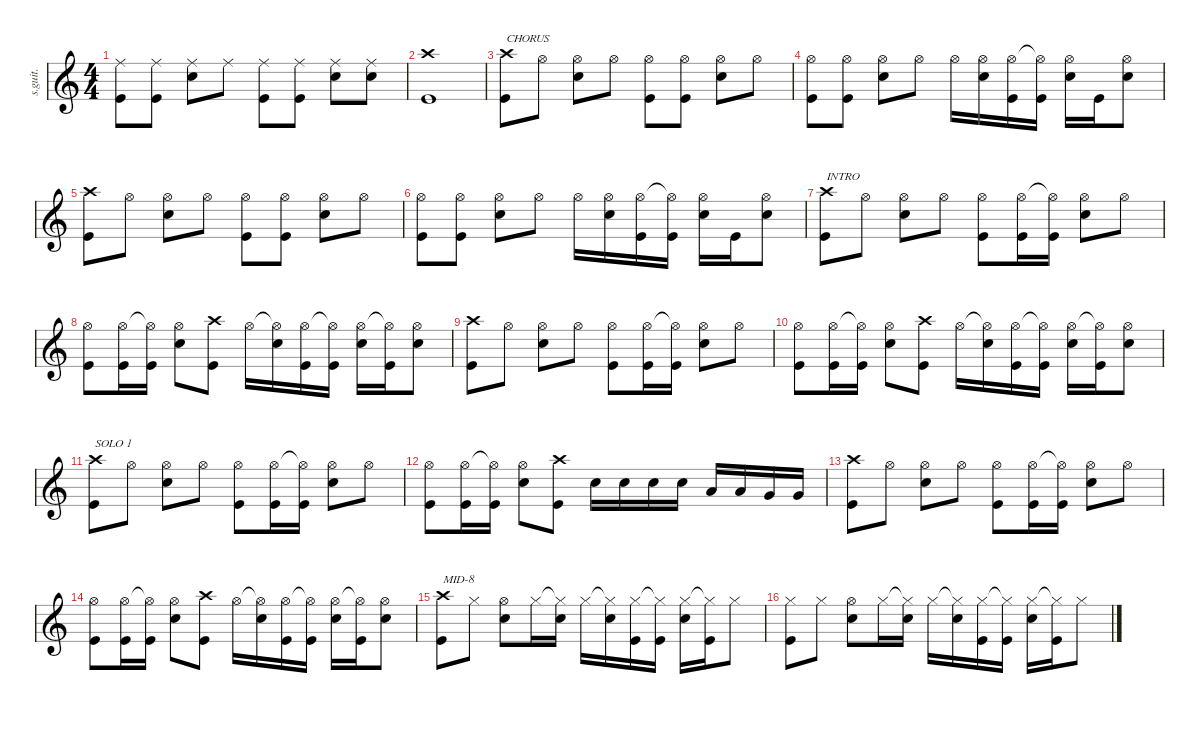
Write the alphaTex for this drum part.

\defaultSystemsLayout 4
\hideDynamics
\bracketExtendMode nobrackets
\track ("Phil Selway" "s.guit.") {instrument percussion}
\staff {score}
\articulation defaults
\ts (4 4)
\tempo (88 hide)
\clef g2
\ks c
("Ride (middle)" "Kick (hit)").8{lyrics (0 "") lyrics (1 "") lyrics (2 "") lyrics (3 "") lyrics (4 "") dy f} ("Ride (middle)" "Kick (hit)").8{lyrics (0 "") lyrics (1 "") lyrics (2 "") lyrics (3 "") lyrics (4 "")} ("Ride (middle)" "Snare (hit) 2").8{lyrics (0 "") lyrics (1 "") lyrics (2 "") lyrics (3 "") lyrics (4 "")} "Ride (middle)".8{lyrics (0 "") lyrics (1 "") lyrics (2 "") lyrics (3 "") lyrics (4 "")} ("Ride (middle)" "Kick (hit)").8{lyrics (0 "") lyrics (1 "") lyrics (2 "") lyrics (3 "") lyrics (4 "")} ("Ride (middle)" "Kick (hit)").8{lyrics (0 "") lyrics (1 "") lyrics (2 "") lyrics (3 "") lyrics (4 "")} ("Ride (middle)" "Snare (hit) 2").8{lyrics (0 "") lyrics (1 "") lyrics (2 "") lyrics (3 "") lyrics (4 "")} ("Ride (middle)" "Snare (hit) 2").8{lyrics (0 "") lyrics (1 "") lyrics (2 "") lyrics (3 "") lyrics (4 "")} |
("Crash high (hit)" "Kick (hit)").1{lyrics (0 "") lyrics (1 "") lyrics (2 "") lyrics (3 "") lyrics (4 "")} |
("Crash high (hit)" "Kick (hit)").8{txt "CHORUS" lyrics (0 "") lyrics (1 "") lyrics (2 "") lyrics (3 "") lyrics (4 "")} "Hi-Hat (open)".8{lyrics (0 "") lyrics (1 "") lyrics (2 "") lyrics (3 "") lyrics (4 "")} ("Hi-Hat (open)" "Snare (hit) 2").8{lyrics (0 "") lyrics (1 "") lyrics (2 "") lyrics (3 "") lyrics (4 "")} "Hi-Hat (open)".8{lyrics (0 "") lyrics (1 "") lyrics (2 "") lyrics (3 "") lyrics (4 "")} ("Hi-Hat (open)" "Kick (hit)").8{lyrics (0 "") lyrics (1 "") lyrics (2 "") lyrics (3 "") lyrics (4 "")} ("Hi-Hat (open)" "Kick (hit)").8{lyrics (0 "") lyrics (1 "") lyrics (2 "") lyrics (3 "") lyrics (4 "")} ("Hi-Hat (open)" "Snare (hit) 2").8{lyrics (0 "") lyrics (1 "") lyrics (2 "") lyrics (3 "") lyrics (4 "")} "Hi-Hat (open)".8{lyrics (0 "") lyrics (1 "") lyrics (2 "") lyrics (3 "") lyrics (4 "")} |
("Hi-Hat (open)" "Kick (hit)").8{lyrics (0 "") lyrics (1 "") lyrics (2 "") lyrics (3 "") lyrics (4 "")} ("Hi-Hat (open)" "Kick (hit)").8{lyrics (0 "") lyrics (1 "") lyrics (2 "") lyrics (3 "") lyrics (4 "")} ("Hi-Hat (open)" "Snare (hit) 2").8{lyrics (0 "") lyrics (1 "") lyrics (2 "") lyrics (3 "") lyrics (4 "")} "Hi-Hat (open)".8{lyrics (0 "") lyrics (1 "") lyrics (2 "") lyrics (3 "") lyrics (4 "")} "Hi-Hat (open)".16{lyrics (0 "") lyrics (1 "") lyrics (2 "") lyrics (3 "") lyrics (4 "")} ("Hi-Hat (open)" "Snare (hit) 2").16{lyrics (0 "") lyrics (1 "") lyrics (2 "") lyrics (3 "") lyrics (4 "")} ("Hi-Hat (open)" "Kick (hit)").16{lyrics (0 "") lyrics (1 "") lyrics (2 "") lyrics (3 "") lyrics (4 "")} ("Hi-Hat (open)"{t} "Kick (hit)").16{lyrics (0 "") lyrics (1 "") lyrics (2 "") lyrics (3 "") lyrics (4 "")} ("Hi-Hat (open)" "Snare (hit) 2").16{lyrics (0 "") lyrics (1 "") lyrics (2 "") lyrics (3 "") lyrics (4 "")} "Kick (hit)".16{lyrics (0 "") lyrics (1 "") lyrics (2 "") lyrics (3 "") lyrics (4 "") dy fff} ("Hi-Hat (open)" "Snare (hit) 2").8{lyrics (0 "") lyrics (1 "") lyrics (2 "") lyrics (3 "") lyrics (4 "") dy f} |
("Crash high (hit)" "Kick (hit)").8{lyrics (0 "") lyrics (1 "") lyrics (2 "") lyrics (3 "") lyrics (4 "")} "Hi-Hat (open)".8{lyrics (0 "") lyrics (1 "") lyrics (2 "") lyrics (3 "") lyrics (4 "")} ("Hi-Hat (open)" "Snare (hit) 2").8{lyrics (0 "") lyrics (1 "") lyrics (2 "") lyrics (3 "") lyrics (4 "")} "Hi-Hat (open)".8{lyrics (0 "") lyrics (1 "") lyrics (2 "") lyrics (3 "") lyrics (4 "")} ("Hi-Hat (open)" "Kick (hit)").8{lyrics (0 "") lyrics (1 "") lyrics (2 "") lyrics (3 "") lyrics (4 "")} ("Hi-Hat (open)" "Kick (hit)").8{lyrics (0 "") lyrics (1 "") lyrics (2 "") lyrics (3 "") lyrics (4 "")} ("Hi-Hat (open)" "Snare (hit) 2").8{lyrics (0 "") lyrics (1 "") lyrics (2 "") lyrics (3 "") lyrics (4 "")} "Hi-Hat (open)".8{lyrics (0 "") lyrics (1 "") lyrics (2 "") lyrics (3 "") lyrics (4 "")} |
("Hi-Hat (open)" "Kick (hit)").8{lyrics (0 "") lyrics (1 "") lyrics (2 "") lyrics (3 "") lyrics (4 "")} ("Hi-Hat (open)" "Kick (hit)").8{lyrics (0 "") lyrics (1 "") lyrics (2 "") lyrics (3 "") lyrics (4 "")} ("Hi-Hat (open)" "Snare (hit) 2").8{lyrics (0 "") lyrics (1 "") lyrics (2 "") lyrics (3 "") lyrics (4 "")} "Hi-Hat (open)".8{lyrics (0 "") lyrics (1 "") lyrics (2 "") lyrics (3 "") lyrics (4 "")} "Hi-Hat (open)".16{lyrics (0 "") lyrics (1 "") lyrics (2 "") lyrics (3 "") lyrics (4 "")} ("Hi-Hat (open)" "Snare (hit) 2").16{lyrics (0 "") lyrics (1 "") lyrics (2 "") lyrics (3 "") lyrics (4 "")} ("Hi-Hat (open)" "Kick (hit)").16{lyrics (0 "") lyrics (1 "") lyrics (2 "") lyrics (3 "") lyrics (4 "")} ("Hi-Hat (open)"{t} "Kick (hit)").16{lyrics (0 "") lyrics (1 "") lyrics (2 "") lyrics (3 "") lyrics (4 "")} ("Hi-Hat (open)" "Snare (hit) 2").16{lyrics (0 "") lyrics (1 "") lyrics (2 "") lyrics (3 "") lyrics (4 "")} "Kick (hit)".16{lyrics (0 "") lyrics (1 "") lyrics (2 "") lyrics (3 "") lyrics (4 "") dy fff} ("Hi-Hat (open)" "Snare (hit) 2").8{lyrics (0 "") lyrics (1 "") lyrics (2 "") lyrics (3 "") lyrics (4 "") dy f} |
("Crash high (hit)" "Kick (hit)").8{txt "INTRO" lyrics (0 "") lyrics (1 "") lyrics (2 "") lyrics (3 "") lyrics (4 "")} "Hi-Hat (open)".8{lyrics (0 "") lyrics (1 "") lyrics (2 "") lyrics (3 "") lyrics (4 "")} ("Hi-Hat (open)" "Snare (hit) 2").8{lyrics (0 "") lyrics (1 "") lyrics (2 "") lyrics (3 "") lyrics (4 "")} "Hi-Hat (open)".8{lyrics (0 "") lyrics (1 "") lyrics (2 "") lyrics (3 "") lyrics (4 "")} ("Hi-Hat (open)" "Kick (hit)").8{lyrics (0 "") lyrics (1 "") lyrics (2 "") lyrics (3 "") lyrics (4 "")} ("Hi-Hat (open)" "Kick (hit)").16{lyrics (0 "") lyrics (1 "") lyrics (2 "") lyrics (3 "") lyrics (4 "")} ("Hi-Hat (open)"{t} "Kick (hit)").16{lyrics (0 "") lyrics (1 "") lyrics (2 "") lyrics (3 "") lyrics (4 "")} ("Hi-Hat (open)" "Snare (hit) 2").8{lyrics (0 "") lyrics (1 "") lyrics (2 "") lyrics (3 "") lyrics (4 "")} "Hi-Hat (open)".8{lyrics (0 "") lyrics (1 "") lyrics (2 "") lyrics (3 "") lyrics (4 "")} |
("Hi-Hat (open)" "Kick (hit)").8{lyrics (0 "") lyrics (1 "") lyrics (2 "") lyrics (3 "") lyrics (4 "")} ("Hi-Hat (open)" "Kick (hit)").16{lyrics (0 "") lyrics (1 "") lyrics (2 "") lyrics (3 "") lyrics (4 "")} ("Hi-Hat (open)"{t} "Kick (hit)").16{lyrics (0 "") lyrics (1 "") lyrics (2 "") lyrics (3 "") lyrics (4 "")} ("Hi-Hat (open)" "Snare (hit) 2").8{lyrics (0 "") lyrics (1 "") lyrics (2 "") lyrics (3 "") lyrics (4 "")} ("Crash high (hit)" "Kick (hit)").8{lyrics (0 "") lyrics (1 "") lyrics (2 "") lyrics (3 "") lyrics (4 "")} "Hi-Hat (open)".16{lyrics (0 "") lyrics (1 "") lyrics (2 "") lyrics (3 "") lyrics (4 "")} ("Hi-Hat (open)"{t} "Snare (hit) 2").16{lyrics (0 "") lyrics (1 "") lyrics (2 "") lyrics (3 "") lyrics (4 "")} ("Hi-Hat (open)" "Kick (hit)").16{lyrics (0 "") lyrics (1 "") lyrics (2 "") lyrics (3 "") lyrics (4 "")} ("Hi-Hat (open)"{t} "Kick (hit)").16{lyrics (0 "") lyrics (1 "") lyrics (2 "") lyrics (3 "") lyrics (4 "")} ("Hi-Hat (open)" "Snare (hit) 2").16{lyrics (0 "") lyrics (1 "") lyrics (2 "") lyrics (3 "") lyrics (4 "")} ("Hi-Hat (open)"{t} "Kick (hit)").16{lyrics (0 "") lyrics (1 "") lyrics (2 "") lyrics (3 "") lyrics (4 "")} ("Hi-Hat (open)" "Snare (hit) 2").8{lyrics (0 "") lyrics (1 "") lyrics (2 "") lyrics (3 "") lyrics (4 "")} |
("Crash high (hit)" "Kick (hit)").8{lyrics (0 "") lyrics (1 "") lyrics (2 "") lyrics (3 "") lyrics (4 "")} "Hi-Hat (open)".8{lyrics (0 "") lyrics (1 "") lyrics (2 "") lyrics (3 "") lyrics (4 "")} ("Hi-Hat (open)" "Snare (hit) 2").8{lyrics (0 "") lyrics (1 "") lyrics (2 "") lyrics (3 "") lyrics (4 "")} "Hi-Hat (open)".8{lyrics (0 "") lyrics (1 "") lyrics (2 "") lyrics (3 "") lyrics (4 "")} ("Hi-Hat (open)" "Kick (hit)").8{lyrics (0 "") lyrics (1 "") lyrics (2 "") lyrics (3 "") lyrics (4 "")} ("Hi-Hat (open)" "Kick (hit)").16{lyrics (0 "") lyrics (1 "") lyrics (2 "") lyrics (3 "") lyrics (4 "")} ("Hi-Hat (open)"{t} "Kick (hit)").16{lyrics (0 "") lyrics (1 "") lyrics (2 "") lyrics (3 "") lyrics (4 "")} ("Hi-Hat (open)" "Snare (hit) 2").8{lyrics (0 "") lyrics (1 "") lyrics (2 "") lyrics (3 "") lyrics (4 "")} "Hi-Hat (open)".8{lyrics (0 "") lyrics (1 "") lyrics (2 "") lyrics (3 "") lyrics (4 "")} |
("Hi-Hat (open)" "Kick (hit)").8{lyrics (0 "") lyrics (1 "") lyrics (2 "") lyrics (3 "") lyrics (4 "")} ("Hi-Hat (open)" "Kick (hit)").16{lyrics (0 "") lyrics (1 "") lyrics (2 "") lyrics (3 "") lyrics (4 "")} ("Hi-Hat (open)"{t} "Kick (hit)").16{lyrics (0 "") lyrics (1 "") lyrics (2 "") lyrics (3 "") lyrics (4 "")} ("Hi-Hat (open)" "Snare (hit) 2").8{lyrics (0 "") lyrics (1 "") lyrics (2 "") lyrics (3 "") lyrics (4 "")} ("Crash high (hit)" "Kick (hit)").8{lyrics (0 "") lyrics (1 "") lyrics (2 "") lyrics (3 "") lyrics (4 "")} "Hi-Hat (open)".16{lyrics (0 "") lyrics (1 "") lyrics (2 "") lyrics (3 "") lyrics (4 "")} ("Hi-Hat (open)"{t} "Snare (hit) 2").16{lyrics (0 "") lyrics (1 "") lyrics (2 "") lyrics (3 "") lyrics (4 "")} ("Hi-Hat (open)" "Kick (hit)").16{lyrics (0 "") lyrics (1 "") lyrics (2 "") lyrics (3 "") lyrics (4 "")} ("Hi-Hat (open)"{t} "Kick (hit)").16{lyrics (0 "") lyrics (1 "") lyrics (2 "") lyrics (3 "") lyrics (4 "")} ("Hi-Hat (open)" "Snare (hit) 2").16{lyrics (0 "") lyrics (1 "") lyrics (2 "") lyrics (3 "") lyrics (4 "")} ("Hi-Hat (open)"{t} "Kick (hit)").16{lyrics (0 "") lyrics (1 "") lyrics (2 "") lyrics (3 "") lyrics (4 "")} ("Hi-Hat (open)" "Snare (hit) 2").8{lyrics (0 "") lyrics (1 "") lyrics (2 "") lyrics (3 "") lyrics (4 "")} |
("Crash high (hit)" "Kick (hit)").8{txt "SOLO 1" lyrics (0 "") lyrics (1 "") lyrics (2 "") lyrics (3 "") lyrics (4 "")} "Hi-Hat (open)".8{lyrics (0 "") lyrics (1 "") lyrics (2 "") lyrics (3 "") lyrics (4 "")} ("Hi-Hat (open)" "Snare (hit) 2").8{lyrics (0 "") lyrics (1 "") lyrics (2 "") lyrics (3 "") lyrics (4 "")} "Hi-Hat (open)".8{lyrics (0 "") lyrics (1 "") lyrics (2 "") lyrics (3 "") lyrics (4 "")} ("Hi-Hat (open)" "Kick (hit)").8{lyrics (0 "") lyrics (1 "") lyrics (2 "") lyrics (3 "") lyrics (4 "")} ("Hi-Hat (open)" "Kick (hit)").16{lyrics (0 "") lyrics (1 "") lyrics (2 "") lyrics (3 "") lyrics (4 "")} ("Hi-Hat (open)"{t} "Kick (hit)").16{lyrics (0 "") lyrics (1 "") lyrics (2 "") lyrics (3 "") lyrics (4 "")} ("Hi-Hat (open)" "Snare (hit) 2").8{lyrics (0 "") lyrics (1 "") lyrics (2 "") lyrics (3 "") lyrics (4 "")} "Hi-Hat (open)".8{lyrics (0 "") lyrics (1 "") lyrics (2 "") lyrics (3 "") lyrics (4 "")} |
("Hi-Hat (open)" "Kick (hit)").8{lyrics (0 "") lyrics (1 "") lyrics (2 "") lyrics (3 "") lyrics (4 "")} ("Hi-Hat (open)" "Kick (hit)").16{lyrics (0 "") lyrics (1 "") lyrics (2 "") lyrics (3 "") lyrics (4 "")} ("Hi-Hat (open)"{t} "Kick (hit)").16{lyrics (0 "") lyrics (1 "") lyrics (2 "") lyrics (3 "") lyrics (4 "")} ("Hi-Hat (open)" "Snare (hit) 2").8{lyrics (0 "") lyrics (1 "") lyrics (2 "") lyrics (3 "") lyrics (4 "")} ("Crash high (hit)" "Kick (hit)").8{lyrics (0 "") lyrics (1 "") lyrics (2 "") lyrics (3 "") lyrics (4 "")} "Snare (hit) 2".16{lyrics (0 "") lyrics (1 "") lyrics (2 "") lyrics (3 "") lyrics (4 "")} "Snare (hit) 2".16{lyrics (0 "") lyrics (1 "") lyrics (2 "") lyrics (3 "") lyrics (4 "")} "Snare (hit) 2".16{lyrics (0 "") lyrics (1 "") lyrics (2 "") lyrics (3 "") lyrics (4 "")} "Snare (hit) 2".16{lyrics (0 "") lyrics (1 "") lyrics (2 "") lyrics (3 "") lyrics (4 "")} "Low Tom (hit)".16{lyrics (0 "") lyrics (1 "") lyrics (2 "") lyrics (3 "") lyrics (4 "")} "Low Tom (hit)".16{lyrics (0 "") lyrics (1 "") lyrics (2 "") lyrics (3 "") lyrics (4 "")} "Very Low Tom (hit)".16{lyrics (0 "") lyrics (1 "") lyrics (2 "") lyrics (3 "") lyrics (4 "")} "Very Low Tom (hit)".16{lyrics (0 "") lyrics (1 "") lyrics (2 "") lyrics (3 "") lyrics (4 "")} |
("Crash high (hit)" "Kick (hit)").8{lyrics (0 "") lyrics (1 "") lyrics (2 "") lyrics (3 "") lyrics (4 "")} "Hi-Hat (open)".8{lyrics (0 "") lyrics (1 "") lyrics (2 "") lyrics (3 "") lyrics (4 "")} ("Hi-Hat (open)" "Snare (hit) 2").8{lyrics (0 "") lyrics (1 "") lyrics (2 "") lyrics (3 "") lyrics (4 "")} "Hi-Hat (open)".8{lyrics (0 "") lyrics (1 "") lyrics (2 "") lyrics (3 "") lyrics (4 "")} ("Hi-Hat (open)" "Kick (hit)").8{lyrics (0 "") lyrics (1 "") lyrics (2 "") lyrics (3 "") lyrics (4 "")} ("Hi-Hat (open)" "Kick (hit)").16{lyrics (0 "") lyrics (1 "") lyrics (2 "") lyrics (3 "") lyrics (4 "")} ("Hi-Hat (open)"{t} "Kick (hit)").16{lyrics (0 "") lyrics (1 "") lyrics (2 "") lyrics (3 "") lyrics (4 "")} ("Hi-Hat (open)" "Snare (hit) 2").8{lyrics (0 "") lyrics (1 "") lyrics (2 "") lyrics (3 "") lyrics (4 "")} "Hi-Hat (open)".8{lyrics (0 "") lyrics (1 "") lyrics (2 "") lyrics (3 "") lyrics (4 "")} |
("Hi-Hat (open)" "Kick (hit)").8{lyrics (0 "") lyrics (1 "") lyrics (2 "") lyrics (3 "") lyrics (4 "")} ("Hi-Hat (open)" "Kick (hit)").16{lyrics (0 "") lyrics (1 "") lyrics (2 "") lyrics (3 "") lyrics (4 "")} ("Hi-Hat (open)"{t} "Kick (hit)").16{lyrics (0 "") lyrics (1 "") lyrics (2 "") lyrics (3 "") lyrics (4 "")} ("Hi-Hat (open)" "Snare (hit) 2").8{lyrics (0 "") lyrics (1 "") lyrics (2 "") lyrics (3 "") lyrics (4 "")} ("Crash high (hit)" "Kick (hit)").8{lyrics (0 "") lyrics (1 "") lyrics (2 "") lyrics (3 "") lyrics (4 "")} "Hi-Hat (open)".16{lyrics (0 "") lyrics (1 "") lyrics (2 "") lyrics (3 "") lyrics (4 "")} ("Hi-Hat (open)"{t} "Snare (hit) 2").16{lyrics (0 "") lyrics (1 "") lyrics (2 "") lyrics (3 "") lyrics (4 "")} ("Hi-Hat (open)" "Kick (hit)").16{lyrics (0 "") lyrics (1 "") lyrics (2 "") lyrics (3 "") lyrics (4 "")} ("Hi-Hat (open)"{t} "Kick (hit)").16{lyrics (0 "") lyrics (1 "") lyrics (2 "") lyrics (3 "") lyrics (4 "")} ("Hi-Hat (open)" "Snare (hit) 2").16{lyrics (0 "") lyrics (1 "") lyrics (2 "") lyrics (3 "") lyrics (4 "")} ("Hi-Hat (open)"{t} "Kick (hit)").16{lyrics (0 "") lyrics (1 "") lyrics (2 "") lyrics (3 "") lyrics (4 "")} ("Hi-Hat (open)" "Snare (hit) 2").8{lyrics (0 "") lyrics (1 "") lyrics (2 "") lyrics (3 "") lyrics (4 "")} |
("Crash high (hit)" "Kick (hit)").8{txt "MID-8" lyrics (0 "") lyrics (1 "") lyrics (2 "") lyrics (3 "") lyrics (4 "")} "Hi-Hat (closed)".8{lyrics (0 "") lyrics (1 "") lyrics (2 "") lyrics (3 "") lyrics (4 "")} ("Hi-Hat (open)" "Snare (hit) 2").8{lyrics (0 "") lyrics (1 "") lyrics (2 "") lyrics (3 "") lyrics (4 "")} "Hi-Hat (closed)".16{lyrics (0 "") lyrics (1 "") lyrics (2 "") lyrics (3 "") lyrics (4 "")} ("Hi-Hat (closed)"{t} "Snare (hit) 2").16{lyrics (0 "") lyrics (1 "") lyrics (2 "") lyrics (3 "") lyrics (4 "")} "Hi-Hat (closed)".16{lyrics (0 "") lyrics (1 "") lyrics (2 "") lyrics (3 "") lyrics (4 "")} ("Hi-Hat (closed)"{t} "Snare (hit) 2").16{lyrics (0 "") lyrics (1 "") lyrics (2 "") lyrics (3 "") lyrics (4 "")} ("Hi-Hat (closed)" "Kick (hit)").16{lyrics (0 "") lyrics (1 "") lyrics (2 "") lyrics (3 "") lyrics (4 "")} ("Hi-Hat (closed)"{t} "Kick (hit)").16{lyrics (0 "") lyrics (1 "") lyrics (2 "") lyrics (3 "") lyrics (4 "")} ("Hi-Hat (closed)" "Snare (hit) 2").16{lyrics (0 "") lyrics (1 "") lyrics (2 "") lyrics (3 "") lyrics (4 "")} ("Hi-Hat (closed)"{t} "Kick (hit)").16{lyrics (0 "") lyrics (1 "") lyrics (2 "") lyrics (3 "") lyrics (4 "")} "Hi-Hat (closed)".8{lyrics (0 "") lyrics (1 "") lyrics (2 "") lyrics (3 "") lyrics (4 "")} |
("Hi-Hat (closed)" "Kick (hit)").8{lyrics (0 "") lyrics (1 "") lyrics (2 "") lyrics (3 "") lyrics (4 "")} "Hi-Hat (closed)".8{lyrics (0 "") lyrics (1 "") lyrics (2 "") lyrics (3 "") lyrics (4 "")} ("Hi-Hat (open)" "Snare (hit) 2").8{lyrics (0 "") lyrics (1 "") lyrics (2 "") lyrics (3 "") lyrics (4 "")} "Hi-Hat (closed)".16{lyrics (0 "") lyrics (1 "") lyrics (2 "") lyrics (3 "") lyrics (4 "")} ("Hi-Hat (closed)"{t} "Snare (hit) 2").16{lyrics (0 "") lyrics (1 "") lyrics (2 "") lyrics (3 "") lyrics (4 "")} "Hi-Hat (closed)".16{lyrics (0 "") lyrics (1 "") lyrics (2 "") lyrics (3 "") lyrics (4 "")} ("Hi-Hat (closed)"{t} "Snare (hit) 2").16{lyrics (0 "") lyrics (1 "") lyrics (2 "") lyrics (3 "") lyrics (4 "")} ("Hi-Hat (closed)" "Kick (hit)").16{lyrics (0 "") lyrics (1 "") lyrics (2 "") lyrics (3 "") lyrics (4 "")} ("Hi-Hat (closed)"{t} "Kick (hit)").16{lyrics (0 "") lyrics (1 "") lyrics (2 "") lyrics (3 "") lyrics (4 "")} ("Hi-Hat (closed)" "Snare (hit) 2").16{lyrics (0 "") lyrics (1 "") lyrics (2 "") lyrics (3 "") lyrics (4 "")} ("Hi-Hat (closed)"{t} "Kick (hit)").16{lyrics (0 "") lyrics (1 "") lyrics (2 "") lyrics (3 "") lyrics (4 "")} "Hi-Hat (closed)".8{lyrics (0 "") lyrics (1 "") lyrics (2 "") lyrics (3 "") lyrics (4 "")}
